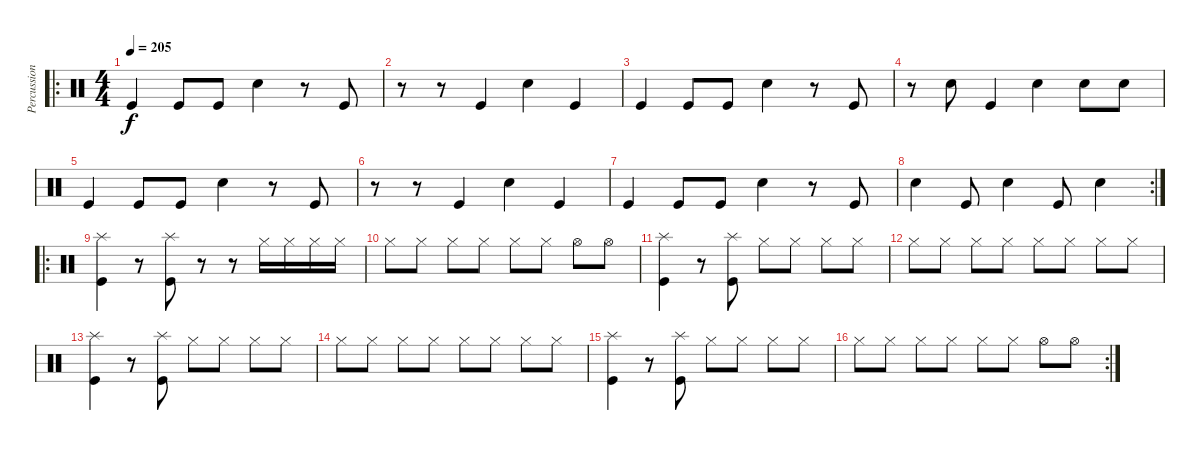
\track ("Percussion" "Percussion") {instrument percussion}
\staff {score}
\articulation defaults
\ro
\ts (4 4)
\tempo 205
\clef neutral
\ks c "Kick (hit)".4{dy f} "Kick (hit)".8 "Kick (hit)".8 "Snare (hit) 2".4
r.8 "Kick (hit)".8 |
r.8 r.8 "Kick (hit)".4 "Snare (hit) 2".4 "Kick (hit)".4 |
"Kick (hit)".4 "Kick (hit)".8 "Kick (hit)".8 "Snare (hit) 2".4 r.8 "Kick (hit)".8 |
r.8 "Snare (hit) 2".8 "Kick (hit)".4 "Snare (hit) 2".4 "Snare (hit) 2".8 "Snare (hit) 2".8 |
"Kick (hit)".4 "Kick (hit)".8 "Kick (hit)".8 "Snare (hit) 2".4 r.8 "Kick (hit)".8 |
r.8 r.8 "Kick (hit)".4 "Snare (hit) 2".4 "Kick (hit)".4 |
"Kick (hit)".4 "Kick (hit)".8 "Kick (hit)".8 "Snare (hit) 2".4 r.8 "Kick (hit)".8 |
\rc 2 "Snare (hit) 2".4 "Kick (hit)".8 "Snare (hit) 2".4 "Kick (hit)".8 "Snare (hit) 2".4
|
\ro
("Kick (hit)" "Splash (hit)").4 r.8 ("Kick (hit)" "Splash (hit)").8 r.8 r.8 "Hi-Hat (closed)".16 "Hi-Hat (closed)".16 "Hi-Hat (closed)".16 "Hi-Hat (closed)".16 |
"Hi-Hat (closed)".8 "Hi-Hat (closed)".8 "Hi-Hat (closed)".8 "Hi-Hat (closed)".8 "Hi-Hat (closed)".8 "Hi-Hat (closed)".8 "Hi-Hat (open)".8 "Hi-Hat (open)".8 |
("Kick (hit)" "Splash (hit)").4 r.8 ("Kick (hit)" "Splash (hit)").8 "Hi-Hat (closed)".8 "Hi-Hat (closed)".8 "Hi-Hat (closed)".8 "Hi-Hat (closed)".8 |
"Hi-Hat (closed)".8 "Hi-Hat (closed)".8 "Hi-Hat (closed)".8 "Hi-Hat (closed)".8 "Hi-Hat (closed)".8 "Hi-Hat (closed)".8 "Hi-Hat (closed)".8 "Hi-Hat (closed)".8 |
("Kick (hit)" "Splash (hit)").4 r.8 ("Kick (hit)" "Splash (hit)").8 "Hi-Hat (closed)".8 "Hi-Hat (closed)".8 "Hi-Hat (closed)".8 "Hi-Hat (closed)".8 |
"Hi-Hat (closed)".8 "Hi-Hat (closed)".8 "Hi-Hat (closed)".8 "Hi-Hat (closed)".8 "Hi-Hat (closed)".8 "Hi-Hat (closed)".8 "Hi-Hat (closed)".8 "Hi-Hat (closed)".8 |
("Kick (hit)" "Splash (hit)").4 r.8 ("Kick (hit)" "Splash (hit)").8 "Hi-Hat (closed)".8 "Hi-Hat (closed)".8 "Hi-Hat (closed)".8 "Hi-Hat (closed)".8 |
\rc 2 "Hi-Hat (closed)".8 "Hi-Hat (closed)".8 "Hi-Hat (closed)".8 "Hi-Hat (closed)".8 "Hi-Hat (closed)".8 "Hi-Hat (closed)".8 "Hi-Hat (open)".8 "Hi-Hat (open)".8
